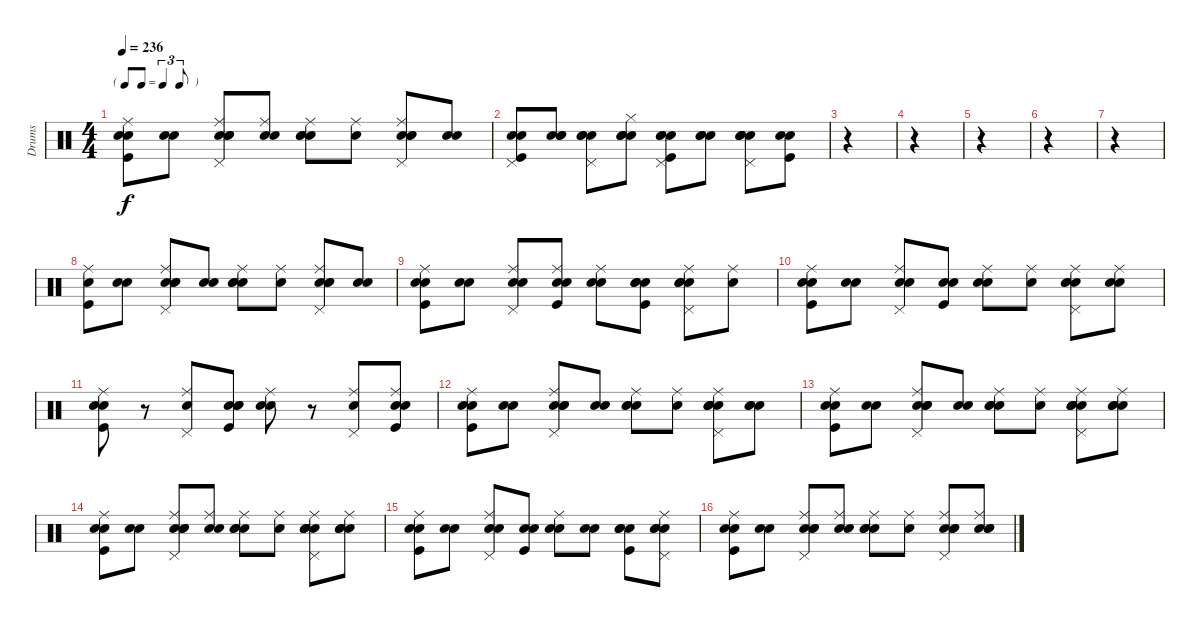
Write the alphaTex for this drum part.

\track ("Drums" "Drums") {instrument percussion}
\staff {score}
\articulation defaults
\ts (4 4)
\tf triplet8th
\tempo 236
\clef neutral
\ks c
("Snare (hit)" "Kick (hit)" "Electric Snare (hit)" "Ride (middle)").8{dy f} ("Snare (hit)" "Electric Snare (hit)").8 ("Snare (hit)" "Snare (hit) 2" "Electric Snare (hit)" "Ride (middle)" "Pedal Hi-Hat (hit)").8 ("Snare (hit)" "Snare (hit) 2" "Ride (middle)").8 ("Snare (hit)" "Snare (hit) 2" "Electric Snare (hit)" "Ride (middle)").8 ("Snare (hit)" "Ride (middle)").8 ("Snare (hit)" "Snare (hit) 2" "Electric Snare (hit)" "Ride (middle)" "Pedal Hi-Hat (hit)").8 ("Snare (hit)" "Snare (hit) 2").8 |
("Snare (hit)" "Kick (hit)" "Electric Snare (hit)" "Pedal Hi-Hat (hit)").8 ("Snare (hit)" "Electric Snare (hit)" "Hand Clap (hit)").8 ("Snare (hit)" "Snare (hit) 2" "Electric Snare (hit)" "Pedal Hi-Hat (hit)").8 ("Snare (hit)" "Snare (hit) 2" "Hi-Hat (closed)" "Hand Clap (hit)").8 ("Snare (hit)" "Kick (hit)" "Electric Snare (hit)" "Pedal Hi-Hat (hit)" "Hand Clap (hit)").8 ("Snare (hit)" "Electric Snare (hit)" "Hand Clap (hit)").8 ("Snare (hit)" "Snare (hit) 2" "Electric Snare (hit)" "Pedal Hi-Hat (hit)" "Hand Clap (hit)").8 ("Snare (hit)" "Kick (hit)" "Hand Clap (hit)").8 |
r.4 |
r.4 |
r.4 |
r.4 |
r.4 |
("Kick (hit)" "Electric Snare (hit)" "Ride (middle)").8 ("Snare (hit)" "Electric Snare (hit)").8 ("Snare (hit)" "Snare (hit) 2" "Electric Snare (hit)" "Ride (middle)" "Pedal Hi-Hat (hit)").8 ("Snare (hit)" "Snare (hit) 2").8 ("Snare (hit)" "Snare (hit) 2" "Electric Snare (hit)" "Ride (middle)").8 ("Snare (hit)" "Ride (middle)").8 ("Snare (hit)" "Snare (hit) 2" "Electric Snare (hit)" "Ride (middle)" "Pedal Hi-Hat (hit)").8 ("Snare (hit)" "Snare (hit) 2").8 |
("Snare (hit)" "Kick (hit)" "Electric Snare (hit)" "Ride (middle)").8 ("Snare (hit)" "Electric Snare (hit)").8 ("Snare (hit)" "Snare (hit) 2" "Ride (middle)" "Pedal Hi-Hat (hit)").8 ("Snare (hit)" "Kick (hit)" "Snare (hit) 2" "Ride (middle)").8 ("Snare (hit)" "Electric Snare (hit)" "Ride (middle)").8 ("Snare (hit)" "Kick (hit)" "Electric Snare (hit)" "Hand Clap (hit)").8 ("Snare (hit)" "Electric Snare (hit)" "Ride (middle)" "Pedal Hi-Hat (hit)" "Hand Clap (hit)").8 ("Snare (hit)" "Ride (middle)").8 |
("Snare (hit)" "Kick (hit)" "Electric Snare (hit)" "Ride (middle)").8 ("Snare (hit)" "Electric Snare (hit)").8 ("Snare (hit)" "Snare (hit) 2" "Ride (middle)" "Pedal Hi-Hat (hit)").8 ("Snare (hit)" "Kick (hit)" "Hand Clap (hit)").8 ("Snare (hit)" "Electric Snare (hit)" "Ride (middle)").8 ("Snare (hit)" "Ride (middle)").8 ("Snare (hit)" "Snare (hit) 2" "Ride (middle)" "Pedal Hi-Hat (hit)" "Hand Clap (hit)").8 ("Snare (hit)" "Snare (hit) 2" "Ride (middle)").8 |
("Snare (hit)" "Kick (hit)" "Electric Snare (hit)" "Ride (middle)").8 r.8 ("Snare (hit) 2" "Ride (middle)" "Pedal Hi-Hat (hit)").8 ("Snare (hit)" "Kick (hit)" "Snare (hit) 2" "Hand Clap (hit)").8 ("Snare (hit)" "Electric Snare (hit)" "Ride (middle)").8 r.8 ("Snare (hit) 2" "Ride (middle)" "Pedal Hi-Hat (hit)").8 ("Snare (hit)" "Kick (hit)" "Ride (middle)" "Hand Clap (hit)").8 |
("Snare (hit)" "Kick (hit)" "Electric Snare (hit)" "Ride (middle)").8 ("Snare (hit)" "Electric Snare (hit)").8 ("Snare (hit)" "Snare (hit) 2" "Electric Snare (hit)" "Ride (middle)" "Pedal Hi-Hat (hit)").8 ("Snare (hit)" "Snare (hit) 2").8 ("Snare (hit)" "Snare (hit) 2" "Electric Snare (hit)" "Ride (middle)").8 ("Snare (hit)" "Ride (middle)").8 ("Snare (hit)" "Snare (hit) 2" "Electric Snare (hit)" "Ride (middle)" "Pedal Hi-Hat (hit)" "Hand Clap (hit)").8 ("Snare (hit)" "Snare (hit) 2" "Hand Clap (hit)").8 |
("Snare (hit)" "Kick (hit)" "Electric Snare (hit)" "Ride (middle)").8 ("Snare (hit)" "Electric Snare (hit)").8 ("Snare (hit)" "Snare (hit) 2" "Electric Snare (hit)" "Ride (middle)" "Pedal Hi-Hat (hit)").8 ("Snare (hit)" "Snare (hit) 2").8 ("Snare (hit)" "Snare (hit) 2" "Electric Snare (hit)" "Ride (middle)").8 ("Snare (hit)" "Ride (middle)").8 ("Snare (hit)" "Snare (hit) 2" "Electric Snare (hit)" "Ride (middle)" "Pedal Hi-Hat (hit)" "Hand Clap (hit)").8 ("Snare (hit)" "Snare (hit) 2" "Ride (middle)" "Hand Clap (hit)").8 |
("Snare (hit)" "Kick (hit)" "Electric Snare (hit)" "Ride (middle)").8 ("Snare (hit)" "Electric Snare (hit)").8 ("Snare (hit)" "Snare (hit) 2" "Electric Snare (hit)" "Ride (middle)" "Pedal Hi-Hat (hit)").8 ("Snare (hit)" "Snare (hit) 2" "Ride (middle)").8 ("Snare (hit)" "Snare (hit) 2" "Electric Snare (hit)" "Ride (middle)").8 ("Snare (hit)" "Ride (middle)").8 ("Snare (hit)" "Snare (hit) 2" "Electric Snare (hit)" "Ride (middle)" "Pedal Hi-Hat (hit)" "Hand Clap (hit)").8 ("Snare (hit)" "Snare (hit) 2" "Ride (middle)" "Hand Clap (hit)").8 |
("Snare (hit)" "Kick (hit)" "Electric Snare (hit)" "Ride (middle)").8 ("Snare (hit)" "Electric Snare (hit)").8 ("Snare (hit)" "Snare (hit) 2" "Ride (middle)" "Pedal Hi-Hat (hit)").8 ("Snare (hit)" "Kick (hit)" "Hand Clap (hit)").8 ("Snare (hit)" "Electric Snare (hit)" "Ride (middle)").8 ("Snare (hit)" "Snare (hit) 2").8 ("Snare (hit)" "Kick (hit)" "Electric Snare (hit)" "Hand Clap (hit)").8 ("Snare (hit)" "Electric Snare (hit)" "Ride (middle)" "Pedal Hi-Hat (hit)" "Hand Clap (hit)").8 |
("Snare (hit)" "Kick (hit)" "Electric Snare (hit)" "Ride (middle)").8 ("Snare (hit)" "Electric Snare (hit)").8 ("Snare (hit)" "Snare (hit) 2" "Electric Snare (hit)" "Ride (middle)" "Pedal Hi-Hat (hit)").8 ("Snare (hit)" "Snare (hit) 2" "Ride (middle)").8 ("Snare (hit)" "Snare (hit) 2" "Electric Snare (hit)" "Ride (middle)").8 ("Snare (hit)" "Ride (middle)").8 ("Snare (hit)" "Snare (hit) 2" "Electric Snare (hit)" "Ride (middle)" "Pedal Hi-Hat (hit)").8 ("Snare (hit)" "Snare (hit) 2" "Ride (middle)" "Hand Clap (hit)").8
